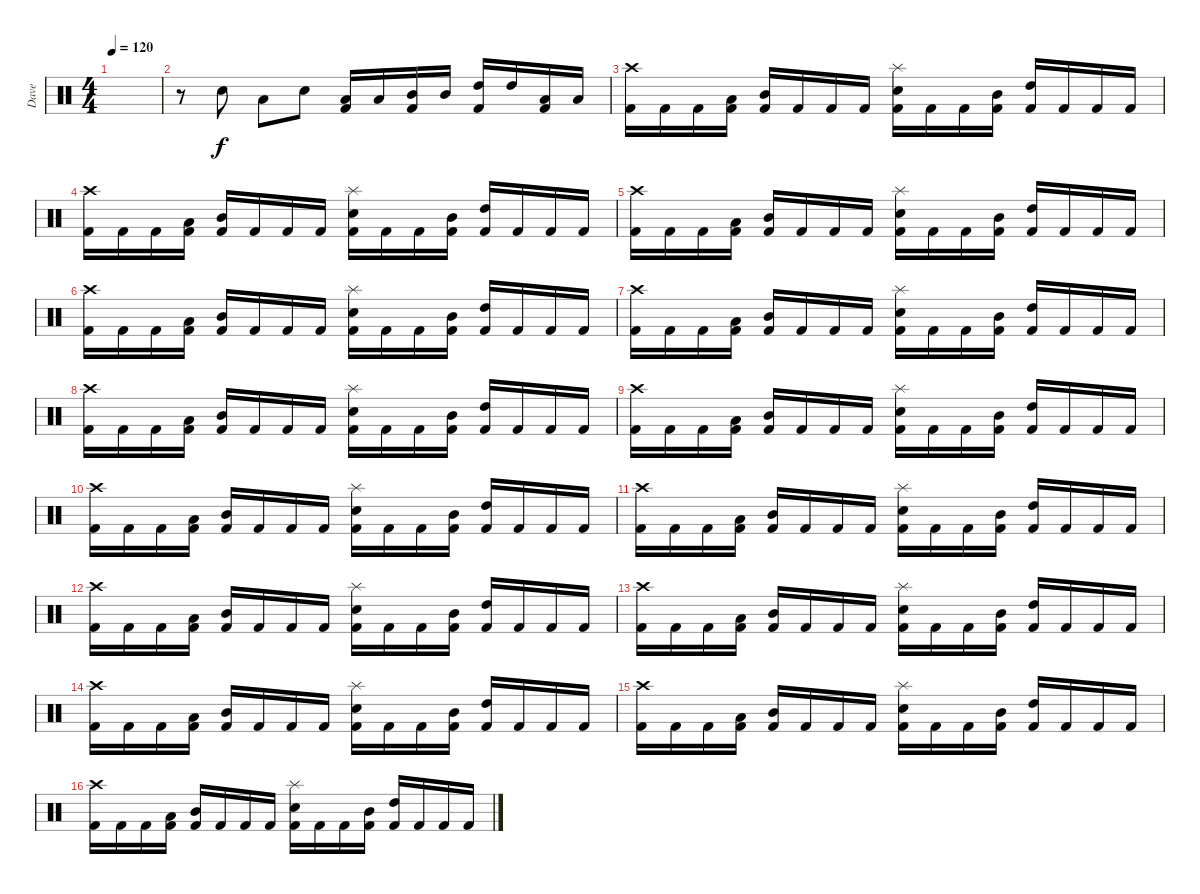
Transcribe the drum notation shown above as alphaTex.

\track ("Dave" "Dave") {instrument percussion}
\staff {score}
\articulation defaults
\ts (4 4)
\tempo 120
\clef neutral
\ks c
|
r.8 "Snare (hit) 2".8 "Low Tom (hit)".8 "Snare (hit) 2".8 ("Kick (hit) 2" "Low Tom (hit)").16 "Low Tom (hit)".16 ("Kick (hit) 2" "Mid Tom (hit)").16 "Mid Tom (hit)".16 ("Kick (hit) 2" "High Tom (hit)").16 "High Tom (hit)".16 ("Kick (hit) 2" "Low Floor Tom (hit)").16 "Low Floor Tom (hit)".16 |
("Kick (hit) 2" "Crash high (hit)").16 "Kick (hit) 2".16 "Kick (hit) 2".16 ("Kick (hit) 2" "Low Tom (hit)").16 ("Kick (hit) 2" "Mid Tom (hit)").16 "Kick (hit) 2".16 "Kick (hit) 2".16 "Kick (hit) 2".16 ("Kick (hit) 2" "Snare (hit) 2" "Splash (hit)").16 "Kick (hit) 2".16 "Kick (hit) 2".16 ("Kick (hit) 2" "Mid Tom (hit)").16 ("Kick (hit) 2" "High Tom (hit)").16 "Kick (hit) 2".16 "Kick (hit) 2".16 "Kick (hit) 2".16 |
("Kick (hit) 2" "Crash high (hit)").16 "Kick (hit) 2".16 "Kick (hit) 2".16 ("Kick (hit) 2" "Low Tom (hit)").16 ("Kick (hit) 2" "Mid Tom (hit)").16 "Kick (hit) 2".16 "Kick (hit) 2".16 "Kick (hit) 2".16 ("Kick (hit) 2" "Snare (hit) 2" "Splash (hit)").16 "Kick (hit) 2".16 "Kick (hit) 2".16 ("Kick (hit) 2" "Mid Tom (hit)").16 ("Kick (hit) 2" "High Tom (hit)").16 "Kick (hit) 2".16 "Kick (hit) 2".16 "Kick (hit) 2".16 |
("Kick (hit) 2" "Crash high (hit)").16 "Kick (hit) 2".16 "Kick (hit) 2".16 ("Kick (hit) 2" "Low Tom (hit)").16 ("Kick (hit) 2" "Mid Tom (hit)").16 "Kick (hit) 2".16 "Kick (hit) 2".16 "Kick (hit) 2".16 ("Kick (hit) 2" "Snare (hit) 2" "Splash (hit)").16 "Kick (hit) 2".16 "Kick (hit) 2".16 ("Kick (hit) 2" "Mid Tom (hit)").16 ("Kick (hit) 2" "High Tom (hit)").16 "Kick (hit) 2".16 "Kick (hit) 2".16 "Kick (hit) 2".16 |
("Kick (hit) 2" "Crash high (hit)").16 "Kick (hit) 2".16 "Kick (hit) 2".16 ("Kick (hit) 2" "Low Tom (hit)").16 ("Kick (hit) 2" "Mid Tom (hit)").16 "Kick (hit) 2".16 "Kick (hit) 2".16 "Kick (hit) 2".16 ("Kick (hit) 2" "Snare (hit) 2" "Splash (hit)").16 "Kick (hit) 2".16 "Kick (hit) 2".16 ("Kick (hit) 2" "Mid Tom (hit)").16 ("Kick (hit) 2" "High Tom (hit)").16 "Kick (hit) 2".16 "Kick (hit) 2".16 "Kick (hit) 2".16 |
("Kick (hit) 2" "Crash high (hit)").16 "Kick (hit) 2".16 "Kick (hit) 2".16 ("Kick (hit) 2" "Low Tom (hit)").16 ("Kick (hit) 2" "Mid Tom (hit)").16 "Kick (hit) 2".16 "Kick (hit) 2".16 "Kick (hit) 2".16 ("Kick (hit) 2" "Snare (hit) 2" "Splash (hit)").16 "Kick (hit) 2".16 "Kick (hit) 2".16 ("Kick (hit) 2" "Mid Tom (hit)").16 ("Kick (hit) 2" "High Tom (hit)").16 "Kick (hit) 2".16 "Kick (hit) 2".16 "Kick (hit) 2".16 |
("Kick (hit) 2" "Crash high (hit)").16 "Kick (hit) 2".16 "Kick (hit) 2".16 ("Kick (hit) 2" "Low Tom (hit)").16 ("Kick (hit) 2" "Mid Tom (hit)").16 "Kick (hit) 2".16 "Kick (hit) 2".16 "Kick (hit) 2".16 ("Kick (hit) 2" "Snare (hit) 2" "Splash (hit)").16 "Kick (hit) 2".16 "Kick (hit) 2".16 ("Kick (hit) 2" "Mid Tom (hit)").16 ("Kick (hit) 2" "High Tom (hit)").16 "Kick (hit) 2".16 "Kick (hit) 2".16 "Kick (hit) 2".16 |
("Kick (hit) 2" "Crash high (hit)").16 "Kick (hit) 2".16 "Kick (hit) 2".16 ("Kick (hit) 2" "Low Tom (hit)").16 ("Kick (hit) 2" "Mid Tom (hit)").16 "Kick (hit) 2".16 "Kick (hit) 2".16 "Kick (hit) 2".16 ("Kick (hit) 2" "Snare (hit) 2" "Splash (hit)").16 "Kick (hit) 2".16 "Kick (hit) 2".16 ("Kick (hit) 2" "Mid Tom (hit)").16 ("Kick (hit) 2" "High Tom (hit)").16 "Kick (hit) 2".16 "Kick (hit) 2".16 "Kick (hit) 2".16 |
("Kick (hit) 2" "Crash high (hit)").16 "Kick (hit) 2".16 "Kick (hit) 2".16 ("Kick (hit) 2" "Low Tom (hit)").16 ("Kick (hit) 2" "Mid Tom (hit)").16 "Kick (hit) 2".16 "Kick (hit) 2".16 "Kick (hit) 2".16 ("Kick (hit) 2" "Snare (hit) 2" "Splash (hit)").16 "Kick (hit) 2".16 "Kick (hit) 2".16 ("Kick (hit) 2" "Mid Tom (hit)").16 ("Kick (hit) 2" "High Tom (hit)").16 "Kick (hit) 2".16 "Kick (hit) 2".16 "Kick (hit) 2".16 |
("Kick (hit) 2" "Crash high (hit)").16 "Kick (hit) 2".16 "Kick (hit) 2".16 ("Kick (hit) 2" "Low Tom (hit)").16 ("Kick (hit) 2" "Mid Tom (hit)").16 "Kick (hit) 2".16 "Kick (hit) 2".16 "Kick (hit) 2".16 ("Kick (hit) 2" "Snare (hit) 2" "Splash (hit)").16 "Kick (hit) 2".16 "Kick (hit) 2".16 ("Kick (hit) 2" "Mid Tom (hit)").16 ("Kick (hit) 2" "High Tom (hit)").16 "Kick (hit) 2".16 "Kick (hit) 2".16 "Kick (hit) 2".16 |
("Kick (hit) 2" "Crash high (hit)").16 "Kick (hit) 2".16 "Kick (hit) 2".16 ("Kick (hit) 2" "Low Tom (hit)").16 ("Kick (hit) 2" "Mid Tom (hit)").16 "Kick (hit) 2".16 "Kick (hit) 2".16 "Kick (hit) 2".16 ("Kick (hit) 2" "Snare (hit) 2" "Splash (hit)").16 "Kick (hit) 2".16 "Kick (hit) 2".16 ("Kick (hit) 2" "Mid Tom (hit)").16 ("Kick (hit) 2" "High Tom (hit)").16 "Kick (hit) 2".16 "Kick (hit) 2".16 "Kick (hit) 2".16 |
("Kick (hit) 2" "Crash high (hit)").16 "Kick (hit) 2".16 "Kick (hit) 2".16 ("Kick (hit) 2" "Low Tom (hit)").16 ("Kick (hit) 2" "Mid Tom (hit)").16 "Kick (hit) 2".16 "Kick (hit) 2".16 "Kick (hit) 2".16 ("Kick (hit) 2" "Snare (hit) 2" "Splash (hit)").16 "Kick (hit) 2".16 "Kick (hit) 2".16 ("Kick (hit) 2" "Mid Tom (hit)").16 ("Kick (hit) 2" "High Tom (hit)").16 "Kick (hit) 2".16 "Kick (hit) 2".16 "Kick (hit) 2".16 |
("Kick (hit) 2" "Crash high (hit)").16 "Kick (hit) 2".16 "Kick (hit) 2".16 ("Kick (hit) 2" "Low Tom (hit)").16 ("Kick (hit) 2" "Mid Tom (hit)").16 "Kick (hit) 2".16 "Kick (hit) 2".16 "Kick (hit) 2".16 ("Kick (hit) 2" "Snare (hit) 2" "Splash (hit)").16 "Kick (hit) 2".16 "Kick (hit) 2".16 ("Kick (hit) 2" "Mid Tom (hit)").16 ("Kick (hit) 2" "High Tom (hit)").16 "Kick (hit) 2".16 "Kick (hit) 2".16 "Kick (hit) 2".16 |
("Kick (hit) 2" "Crash high (hit)").16 "Kick (hit) 2".16 "Kick (hit) 2".16 ("Kick (hit) 2" "Low Tom (hit)").16 ("Kick (hit) 2" "Mid Tom (hit)").16 "Kick (hit) 2".16 "Kick (hit) 2".16 "Kick (hit) 2".16 ("Kick (hit) 2" "Snare (hit) 2" "Splash (hit)").16 "Kick (hit) 2".16 "Kick (hit) 2".16 ("Kick (hit) 2" "Mid Tom (hit)").16 ("Kick (hit) 2" "High Tom (hit)").16 "Kick (hit) 2".16 "Kick (hit) 2".16 "Kick (hit) 2".16 |
("Kick (hit) 2" "Crash high (hit)").16 "Kick (hit) 2".16 "Kick (hit) 2".16 ("Kick (hit) 2" "Low Tom (hit)").16 ("Kick (hit) 2" "Mid Tom (hit)").16 "Kick (hit) 2".16 "Kick (hit) 2".16 "Kick (hit) 2".16 ("Kick (hit) 2" "Snare (hit) 2" "Splash (hit)").16 "Kick (hit) 2".16 "Kick (hit) 2".16 ("Kick (hit) 2" "Mid Tom (hit)").16 ("Kick (hit) 2" "High Tom (hit)").16 "Kick (hit) 2".16 "Kick (hit) 2".16 "Kick (hit) 2".16
